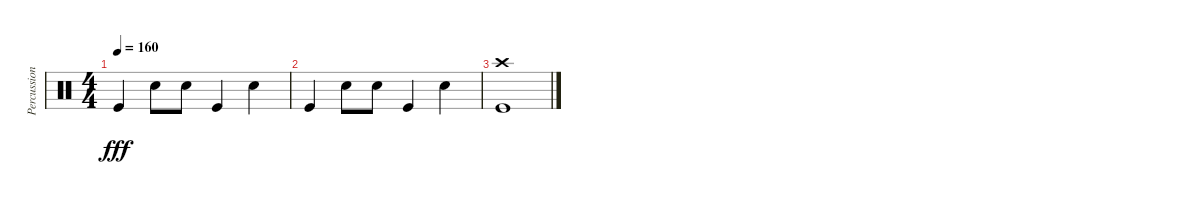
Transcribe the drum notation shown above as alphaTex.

\track ("Percussions" "Percussion") {instrument percussion}
\staff {score}
\articulation defaults
\ts (4 4)
\tempo 160
\clef neutral
\ks c "Kick (hit)".4{dy fff} "Snare (hit) 2".8 "Snare (hit) 2".8 "Kick (hit)".4 "Snare (hit) 2".4
|
"Kick (hit)".4 "Snare (hit) 2".8 "Snare (hit) 2".8 "Kick (hit)".4 "Snare (hit) 2".4 |
("Kick (hit)" "Crash high (hit)").1
